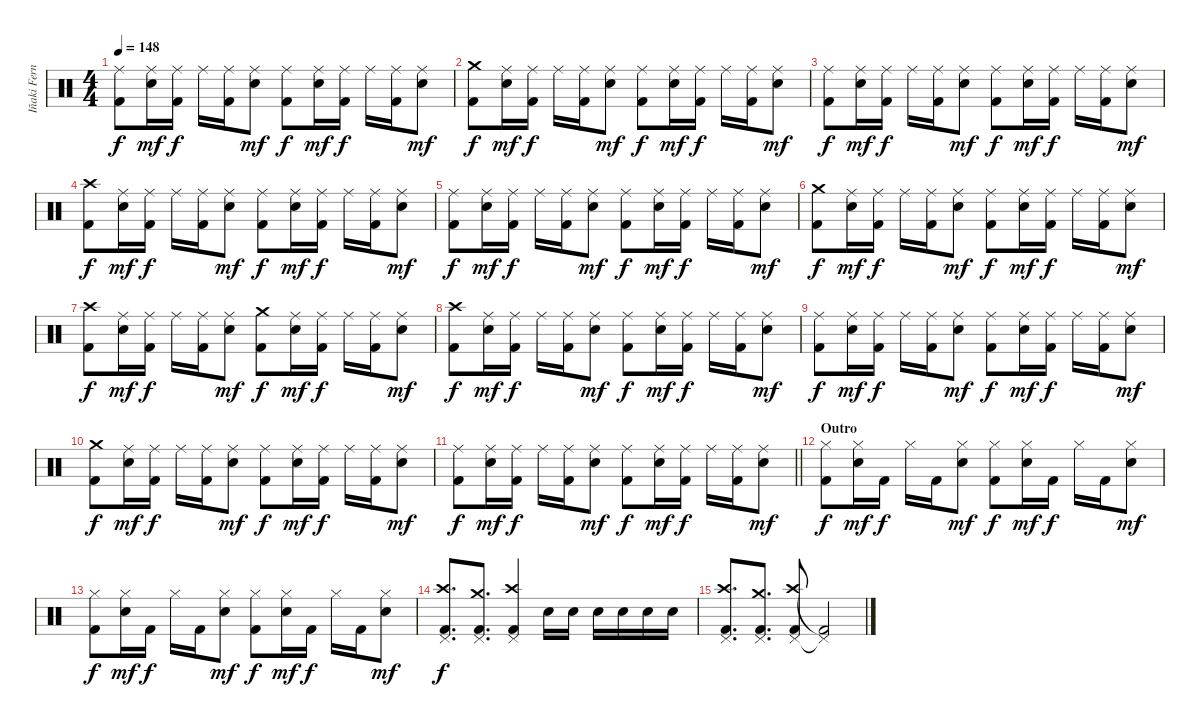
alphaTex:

\track ("Iñaki Fernández" "Iñaki Fern") {instrument percussion}
\staff {score}
\articulation defaults
\ts (4 4)
\tempo 148
\clef neutral
\ks c
("Ride (middle)" "Kick (hit) 2").8{dy f} ("Ride (middle)" "Snare (hit) 2").16{dy mf} ("Ride (middle)" "Kick (hit) 2").16{dy f} "Ride (middle)".16 ("Ride (middle)" "Kick (hit) 2").16 ("Ride (middle)" "Snare (hit) 2").8{dy mf} ("Ride (middle)" "Kick (hit) 2").8{dy f} ("Ride (middle)" "Snare (hit) 2").16{dy mf} ("Ride (middle)" "Kick (hit) 2").16{dy f} "Ride (middle)".16 ("Ride (middle)" "Kick (hit) 2").16 ("Ride (middle)" "Snare (hit) 2").8{dy mf} |
("Crash medium (hit)" "Kick (hit) 2").8{dy f} ("Ride (middle)" "Snare (hit) 2").16{dy mf} ("Ride (middle)" "Kick (hit) 2").16{dy f} "Ride (middle)".16 ("Ride (middle)" "Kick (hit) 2").16 ("Ride (middle)" "Snare (hit) 2").8{dy mf} ("Ride (middle)" "Kick (hit) 2").8{dy f} ("Ride (middle)" "Snare (hit) 2").16{dy mf} ("Ride (middle)" "Kick (hit) 2").16{dy f} "Ride (middle)".16 ("Ride (middle)" "Kick (hit) 2").16 ("Ride (middle)" "Snare (hit) 2").8{dy mf} |
("Ride (middle)" "Kick (hit) 2").8{dy f} ("Ride (middle)" "Snare (hit) 2").16{dy mf} ("Ride (middle)" "Kick (hit) 2").16{dy f} "Ride (middle)".16 ("Ride (middle)" "Kick (hit) 2").16 ("Ride (middle)" "Snare (hit) 2").8{dy mf} ("Ride (middle)" "Kick (hit) 2").8{dy f} ("Ride (middle)" "Snare (hit) 2").16{dy mf} ("Ride (middle)" "Kick (hit) 2").16{dy f} "Ride (middle)".16 ("Ride (middle)" "Kick (hit) 2").16 ("Ride (middle)" "Snare (hit) 2").8{dy mf} |
("Crash high (hit)" "Kick (hit) 2").8{dy f} ("Ride (middle)" "Snare (hit) 2").16{dy mf} ("Ride (middle)" "Kick (hit) 2").16{dy f} "Ride (middle)".16 ("Ride (middle)" "Kick (hit) 2").16 ("Ride (middle)" "Snare (hit) 2").8{dy mf} ("Ride (middle)" "Kick (hit) 2").8{dy f} ("Ride (middle)" "Snare (hit) 2").16{dy mf} ("Ride (middle)" "Kick (hit) 2").16{dy f} "Ride (middle)".16 ("Ride (middle)" "Kick (hit) 2").16 ("Ride (middle)" "Snare (hit) 2").8{dy mf} |
("Ride (middle)" "Kick (hit) 2").8{dy f} ("Ride (middle)" "Snare (hit) 2").16{dy mf} ("Ride (middle)" "Kick (hit) 2").16{dy f} "Ride (middle)".16 ("Ride (middle)" "Kick (hit) 2").16 ("Ride (middle)" "Snare (hit) 2").8{dy mf} ("Ride (middle)" "Kick (hit) 2").8{dy f} ("Ride (middle)" "Snare (hit) 2").16{dy mf} ("Ride (middle)" "Kick (hit) 2").16{dy f} "Ride (middle)".16 ("Ride (middle)" "Kick (hit) 2").16 ("Ride (middle)" "Snare (hit) 2").8{dy mf} |
("Crash medium (hit)" "Kick (hit) 2").8{dy f} ("Ride (middle)" "Snare (hit) 2").16{dy mf} ("Ride (middle)" "Kick (hit) 2").16{dy f} "Ride (middle)".16 ("Ride (middle)" "Kick (hit) 2").16 ("Ride (middle)" "Snare (hit) 2").8{dy mf} ("Ride (middle)" "Kick (hit) 2").8{dy f} ("Ride (middle)" "Snare (hit) 2").16{dy mf} ("Ride (middle)" "Kick (hit) 2").16{dy f} "Ride (middle)".16 ("Ride (middle)" "Kick (hit) 2").16 ("Ride (middle)" "Snare (hit) 2").8{dy mf} |
("Crash high (hit)" "Kick (hit) 2").8{dy f} ("Ride (middle)" "Snare (hit) 2").16{dy mf} ("Ride (middle)" "Kick (hit) 2").16{dy f} "Ride (middle)".16 ("Ride (middle)" "Kick (hit) 2").16 ("Ride (middle)" "Snare (hit) 2").8{dy mf} ("Crash medium (hit)" "Kick (hit) 2").8{dy f} ("Ride (middle)" "Snare (hit) 2").16{dy mf} ("Ride (middle)" "Kick (hit) 2").16{dy f} "Ride (middle)".16 ("Ride (middle)" "Kick (hit) 2").16 ("Ride (middle)" "Snare (hit) 2").8{dy mf} |
("Crash high (hit)" "Kick (hit) 2").8{dy f} ("Ride (middle)" "Snare (hit) 2").16{dy mf} ("Ride (middle)" "Kick (hit) 2").16{dy f} "Ride (middle)".16 ("Ride (middle)" "Kick (hit) 2").16 ("Ride (middle)" "Snare (hit) 2").8{dy mf} ("Ride (middle)" "Kick (hit) 2").8{dy f} ("Ride (middle)" "Snare (hit) 2").16{dy mf} ("Ride (middle)" "Kick (hit) 2").16{dy f} "Ride (middle)".16 ("Ride (middle)" "Kick (hit) 2").16 ("Ride (middle)" "Snare (hit) 2").8{dy mf} |
("Ride (middle)" "Kick (hit) 2").8{dy f} ("Ride (middle)" "Snare (hit) 2").16{dy mf} ("Ride (middle)" "Kick (hit) 2").16{dy f} "Ride (middle)".16 ("Ride (middle)" "Kick (hit) 2").16 ("Ride (middle)" "Snare (hit) 2").8{dy mf} ("Ride (middle)" "Kick (hit) 2").8{dy f} ("Ride (middle)" "Snare (hit) 2").16{dy mf} ("Ride (middle)" "Kick (hit) 2").16{dy f} "Ride (middle)".16 ("Ride (middle)" "Kick (hit) 2").16 ("Ride (middle)" "Snare (hit) 2").8{dy mf} |
("Crash medium (hit)" "Kick (hit) 2").8{dy f} ("Ride (middle)" "Snare (hit) 2").16{dy mf} ("Ride (middle)" "Kick (hit) 2").16{dy f} "Ride (middle)".16 ("Ride (middle)" "Kick (hit) 2").16 ("Ride (middle)" "Snare (hit) 2").8{dy mf} ("Ride (middle)" "Kick (hit) 2").8{dy f} ("Ride (middle)" "Snare (hit) 2").16{dy mf} ("Ride (middle)" "Kick (hit) 2").16{dy f} "Ride (middle)".16 ("Ride (middle)" "Kick (hit) 2").16 ("Ride (middle)" "Snare (hit) 2").8{dy mf} |
\barLineRight lightlight
("Ride (middle)" "Kick (hit) 2").8{dy f} ("Ride (middle)" "Snare (hit) 2").16{dy mf} ("Ride (middle)" "Kick (hit) 2").16{dy f} "Ride (middle)".16 ("Ride (middle)" "Kick (hit) 2").16 ("Ride (middle)" "Snare (hit) 2").8{dy mf} ("Ride (middle)" "Kick (hit) 2").8{dy f} ("Ride (middle)" "Snare (hit) 2").16{dy mf} ("Ride (middle)" "Kick (hit) 2").16{dy f} "Ride (middle)".16 ("Ride (middle)" "Kick (hit) 2").16 ("Ride (middle)" "Snare (hit) 2").8{dy mf} |
\section ("" "Outro")
("Hi-Hat (closed)" "Kick (hit) 2").8{dy f} ("Hi-Hat (closed)" "Snare (hit) 2").16{dy mf} "Kick (hit) 2".16{dy f} "Hi-Hat (closed)".16 "Kick (hit) 2".16 ("Hi-Hat (closed)" "Snare (hit) 2").8{dy mf} ("Hi-Hat (closed)" "Kick (hit) 2").8{dy f} ("Hi-Hat (closed)" "Snare (hit) 2").16{dy mf} "Kick (hit) 2".16{dy f} "Hi-Hat (closed)".16 "Kick (hit) 2".16 ("Hi-Hat (closed)" "Snare (hit) 2").8{dy mf} |
("Hi-Hat (closed)" "Kick (hit) 2").8{dy f} ("Hi-Hat (closed)" "Snare (hit) 2").16{dy mf} "Kick (hit) 2".16{dy f} "Hi-Hat (closed)".16 "Kick (hit) 2".16 ("Hi-Hat (closed)" "Snare (hit) 2").8{dy mf} ("Hi-Hat (closed)" "Kick (hit) 2").8{dy f} ("Hi-Hat (closed)" "Snare (hit) 2").16{dy mf} "Kick (hit) 2".16{dy f} "Hi-Hat (closed)".16 "Kick (hit) 2".16 ("Hi-Hat (closed)" "Snare (hit) 2").8{dy mf} |
("Pedal Hi-Hat (hit)" "Crash high (hit)" "Kick (hit) 2").8{d dy f} ("Pedal Hi-Hat (hit)" "Crash medium (hit)" "Kick (hit) 2").8{d} ("Pedal Hi-Hat (hit)" "Crash high (hit)" "Kick (hit) 2").4 "Snare (hit) 2".16 "Snare (hit) 2".16 "Snare (hit) 2".16 "Snare (hit) 2".16 "Snare (hit) 2".16 "Snare (hit) 2".16 |
("Pedal Hi-Hat (hit)" "Crash high (hit)" "Kick (hit) 2").8{d} ("Pedal Hi-Hat (hit)" "Crash medium (hit)" "Kick (hit) 2").8{d} ("Pedal Hi-Hat (hit)" "Crash high (hit)" "Kick (hit) 2").8 ("Pedal Hi-Hat (hit)"{t} "Kick (hit) 2"{t}).2
